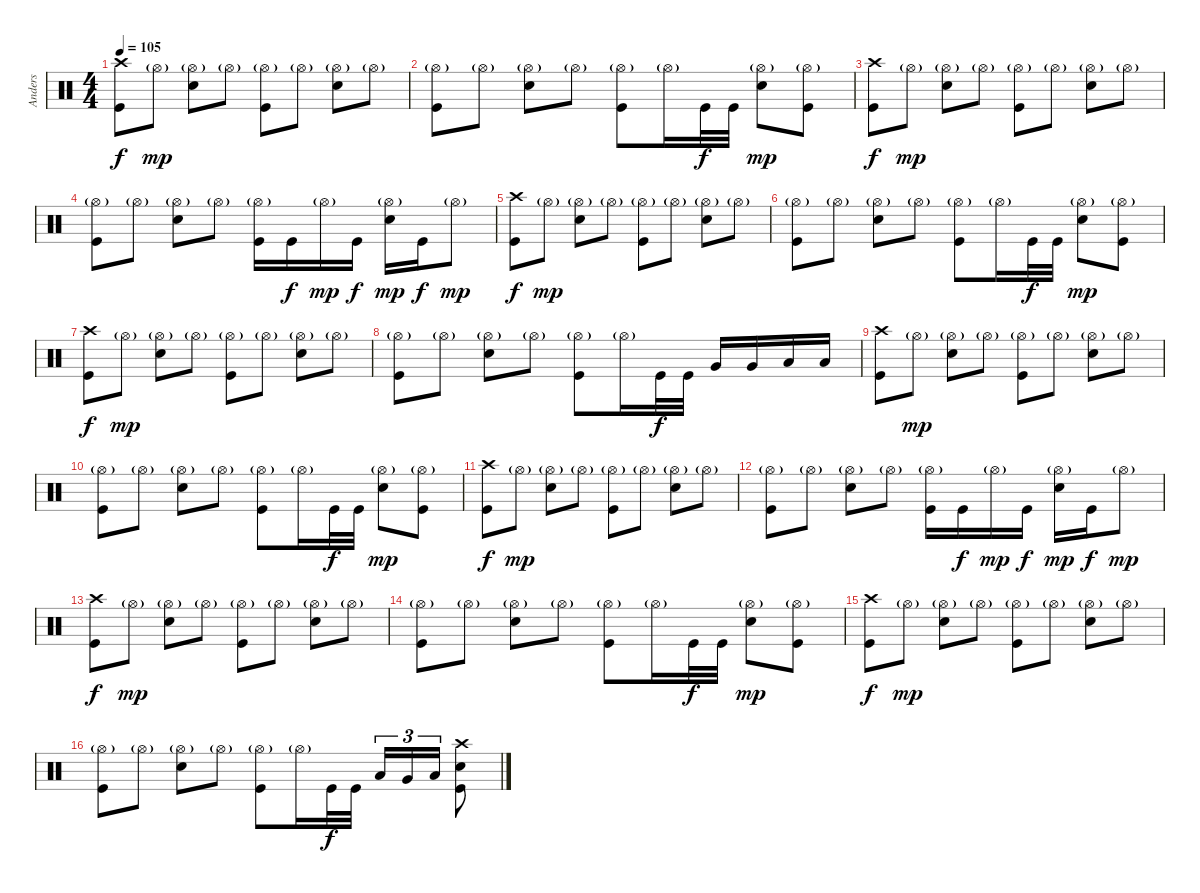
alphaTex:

\track ("Anders" "Anders") {instrument percussion}
\staff {score}
\articulation defaults
\ts (4 4)
\tempo 105
\clef neutral
\ks c
("Crash high (hit)" "Kick (hit)").8{dy f} "Hi-Hat (open)"{g}.8{dy mp} ("Hi-Hat (open)"{g} "Snare (hit) 2").8 "Hi-Hat (open)"{g}.8 ("Hi-Hat (open)"{g} "Kick (hit)").8 "Hi-Hat (open)"{g}.8 ("Hi-Hat (open)"{g} "Snare (hit) 2").8 "Hi-Hat (open)"{g}.8 |
("Hi-Hat (open)"{g} "Kick (hit)").8 "Hi-Hat (open)"{g}.8 ("Hi-Hat (open)"{g} "Snare (hit) 2").8 "Hi-Hat (open)"{g}.8 ("Hi-Hat (open)"{g} "Kick (hit)").8 "Hi-Hat (open)"{g}.16 "Kick (hit)".32{dy f} "Kick (hit)".32 ("Hi-Hat (open)"{g} "Snare (hit) 2").8{dy mp} ("Hi-Hat (open)"{g} "Kick (hit)").8 |
("Crash high (hit)" "Kick (hit)").8{dy f} "Hi-Hat (open)"{g}.8{dy mp} ("Hi-Hat (open)"{g} "Snare (hit) 2").8 "Hi-Hat (open)"{g}.8 ("Hi-Hat (open)"{g} "Kick (hit)").8 "Hi-Hat (open)"{g}.8 ("Hi-Hat (open)"{g} "Snare (hit) 2").8 "Hi-Hat (open)"{g}.8 |
("Hi-Hat (open)"{g} "Kick (hit)").8 "Hi-Hat (open)"{g}.8 ("Hi-Hat (open)"{g} "Snare (hit) 2").8 "Hi-Hat (open)"{g}.8 ("Hi-Hat (open)"{g} "Kick (hit)").16 "Kick (hit)".16{dy f} "Hi-Hat (open)"{g}.16{dy mp} "Kick (hit)".16{dy f} ("Hi-Hat (open)"{g} "Snare (hit) 2").16{dy mp} "Kick (hit)".16{dy f} "Hi-Hat (open)"{g}.8{dy mp} |
("Crash high (hit)" "Kick (hit)").8{dy f} "Hi-Hat (open)"{g}.8{dy mp} ("Hi-Hat (open)"{g} "Snare (hit) 2").8 "Hi-Hat (open)"{g}.8 ("Hi-Hat (open)"{g} "Kick (hit)").8 "Hi-Hat (open)"{g}.8 ("Hi-Hat (open)"{g} "Snare (hit) 2").8 "Hi-Hat (open)"{g}.8 |
("Hi-Hat (open)"{g} "Kick (hit)").8 "Hi-Hat (open)"{g}.8 ("Hi-Hat (open)"{g} "Snare (hit) 2").8 "Hi-Hat (open)"{g}.8 ("Hi-Hat (open)"{g} "Kick (hit)").8 "Hi-Hat (open)"{g}.16 "Kick (hit)".32{dy f} "Kick (hit)".32 ("Hi-Hat (open)"{g} "Snare (hit) 2").8{dy mp} ("Hi-Hat (open)"{g} "Kick (hit)").8 |
("Crash high (hit)" "Kick (hit)").8{dy f} "Hi-Hat (open)"{g}.8{dy mp} ("Hi-Hat (open)"{g} "Snare (hit) 2").8 "Hi-Hat (open)"{g}.8 ("Hi-Hat (open)"{g} "Kick (hit)").8 "Hi-Hat (open)"{g}.8 ("Hi-Hat (open)"{g} "Snare (hit) 2").8 "Hi-Hat (open)"{g}.8 |
("Hi-Hat (open)"{g} "Kick (hit)").8 "Hi-Hat (open)"{g}.8 ("Hi-Hat (open)"{g} "Snare (hit) 2").8 "Hi-Hat (open)"{g}.8 ("Hi-Hat (open)"{g} "Kick (hit)").8 "Hi-Hat (open)"{g}.16 "Kick (hit)".32{dy f} "Kick (hit)".32 "Very Low Tom (hit)".16 "Very Low Tom (hit)".16 "Low Floor Tom (hit)".16 "Low Floor Tom (hit)".16 |
("Crash high (hit)" "Kick (hit)").8 "Hi-Hat (open)"{g}.8{dy mp} ("Hi-Hat (open)"{g} "Snare (hit) 2").8 "Hi-Hat (open)"{g}.8 ("Hi-Hat (open)"{g} "Kick (hit)").8 "Hi-Hat (open)"{g}.8 ("Hi-Hat (open)"{g} "Snare (hit) 2").8 "Hi-Hat (open)"{g}.8 |
("Hi-Hat (open)"{g} "Kick (hit)").8 "Hi-Hat (open)"{g}.8 ("Hi-Hat (open)"{g} "Snare (hit) 2").8 "Hi-Hat (open)"{g}.8 ("Hi-Hat (open)"{g} "Kick (hit)").8 "Hi-Hat (open)"{g}.16 "Kick (hit)".32{dy f} "Kick (hit)".32 ("Hi-Hat (open)"{g} "Snare (hit) 2").8{dy mp} ("Hi-Hat (open)"{g} "Kick (hit)").8 |
("Crash high (hit)" "Kick (hit)").8{dy f} "Hi-Hat (open)"{g}.8{dy mp} ("Hi-Hat (open)"{g} "Snare (hit) 2").8 "Hi-Hat (open)"{g}.8 ("Hi-Hat (open)"{g} "Kick (hit)").8 "Hi-Hat (open)"{g}.8 ("Hi-Hat (open)"{g} "Snare (hit) 2").8 "Hi-Hat (open)"{g}.8 |
("Hi-Hat (open)"{g} "Kick (hit)").8 "Hi-Hat (open)"{g}.8 ("Hi-Hat (open)"{g} "Snare (hit) 2").8 "Hi-Hat (open)"{g}.8 ("Hi-Hat (open)"{g} "Kick (hit)").16 "Kick (hit)".16{dy f} "Hi-Hat (open)"{g}.16{dy mp} "Kick (hit)".16{dy f} ("Hi-Hat (open)"{g} "Snare (hit) 2").16{dy mp} "Kick (hit)".16{dy f} "Hi-Hat (open)"{g}.8{dy mp} |
("Crash high (hit)" "Kick (hit)").8{dy f} "Hi-Hat (open)"{g}.8{dy mp} ("Hi-Hat (open)"{g} "Snare (hit) 2").8 "Hi-Hat (open)"{g}.8 ("Hi-Hat (open)"{g} "Kick (hit)").8 "Hi-Hat (open)"{g}.8 ("Hi-Hat (open)"{g} "Snare (hit) 2").8 "Hi-Hat (open)"{g}.8 |
("Hi-Hat (open)"{g} "Kick (hit)").8 "Hi-Hat (open)"{g}.8 ("Hi-Hat (open)"{g} "Snare (hit) 2").8 "Hi-Hat (open)"{g}.8 ("Hi-Hat (open)"{g} "Kick (hit)").8 "Hi-Hat (open)"{g}.16 "Kick (hit)".32{dy f} "Kick (hit)".32 ("Hi-Hat (open)"{g} "Snare (hit) 2").8{dy mp} ("Hi-Hat (open)"{g} "Kick (hit)").8 |
("Crash high (hit)" "Kick (hit)").8{dy f} "Hi-Hat (open)"{g}.8{dy mp} ("Hi-Hat (open)"{g} "Snare (hit) 2").8 "Hi-Hat (open)"{g}.8 ("Hi-Hat (open)"{g} "Kick (hit)").8 "Hi-Hat (open)"{g}.8 ("Hi-Hat (open)"{g} "Snare (hit) 2").8 "Hi-Hat (open)"{g}.8 |
("Hi-Hat (open)"{g} "Kick (hit)").8 "Hi-Hat (open)"{g}.8 ("Hi-Hat (open)"{g} "Snare (hit) 2").8 "Hi-Hat (open)"{g}.8 ("Hi-Hat (open)"{g} "Kick (hit)").8 "Hi-Hat (open)"{g}.16 "Kick (hit)".32{dy f} "Kick (hit)".32 "Low Tom (hit)".16{tu (3 2)} "Very Low Tom (hit)".16{tu (3 2)} "Low Floor Tom (hit)".16{tu (3 2)} ("Crash high (hit)" "Snare (hit) 2" "Kick (hit)").8
